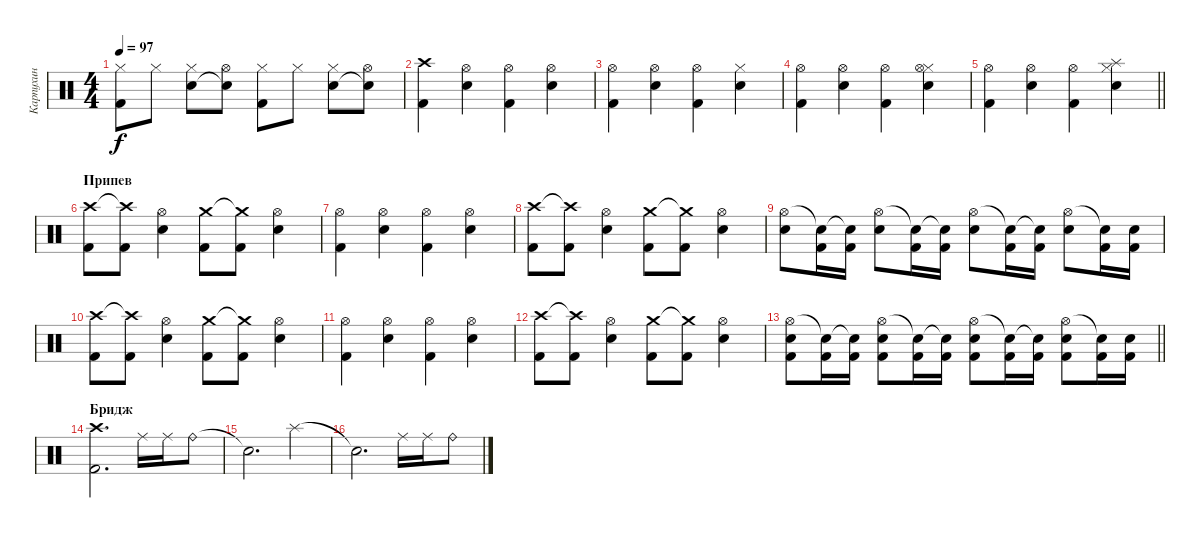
\track ("Карпухин" "Карпухин") {instrument percussion}
\staff {score}
\articulation defaults
\ts (4 4)
\tempo 97
\clef neutral
\ks c
("Hi-Hat (closed)" "Kick (hit) 2").8{dy f} "Hi-Hat (closed)".8 ("Hi-Hat (closed)" "Snare (hit) 2").8 ("Hi-Hat (open)" "Snare (hit) 2"{t}).8 ("Hi-Hat (closed)" "Kick (hit) 2").8 "Hi-Hat (closed)".8 ("Hi-Hat (closed)" "Snare (hit) 2").8 ("Hi-Hat (open)" "Snare (hit) 2"{t}).8 |
("Crash high (hit)" "Kick (hit) 2").4 ("Electric Snare (hit)" "Hi-Hat (open)").4 ("Kick (hit) 2" "Hi-Hat (open)").4 ("Electric Snare (hit)" "Hi-Hat (open)").4 |
("Kick (hit) 2" "Hi-Hat (open)").4 ("Electric Snare (hit)" "Hi-Hat (open)").4 ("Kick (hit) 2" "Hi-Hat (open)").4 ("Electric Snare (hit)" "Hi-Hat (closed)").4 |
("Kick (hit) 2" "Hi-Hat (open)").4 ("Electric Snare (hit)" "Hi-Hat (open)").4 ("Kick (hit) 2" "Hi-Hat (open)").4 ("Electric Snare (hit)" "Hi-Hat (closed)" "Hi-Hat (open)").4 |
\barLineRight lightlight
("Kick (hit) 2" "Hi-Hat (open)").4 ("Electric Snare (hit)" "Hi-Hat (open)").4 ("Kick (hit) 2" "Hi-Hat (open)").4 ("Electric Snare (hit)" "Hi-Hat (closed)" "Splash (hit)").4 |
\section ("" "Припев")
("Crash high (hit)" "Kick (hit) 2").8 ("Crash high (hit)"{t} "Kick (hit) 2").8 ("Hi-Hat (open)" "Electric Snare (hit)").4 ("Crash medium (hit)" "Kick (hit) 2").8 ("Crash medium (hit)"{t} "Kick (hit) 2").8 ("Hi-Hat (open)" "Electric Snare (hit)").4 |
("Kick (hit) 2" "Hi-Hat (open)").4 ("Electric Snare (hit)" "Hi-Hat (open)").4 ("Kick (hit) 2" "Hi-Hat (open)").4 ("Electric Snare (hit)" "Hi-Hat (open)").4 |
("Crash high (hit)" "Kick (hit) 2").8 ("Crash high (hit)"{t} "Kick (hit) 2").8 ("Hi-Hat (open)" "Electric Snare (hit)").4 ("Crash medium (hit)" "Kick (hit) 2").8 ("Crash medium (hit)"{t} "Kick (hit) 2").8 ("Hi-Hat (open)" "Electric Snare (hit)").4 |
("Electric Snare (hit)" "Hi-Hat (open)").8 ("Kick (hit) 2" "Snare (hit)"{t}).16 ("Kick (hit) 2" "Snare (hit)"{t}).16 ("Electric Snare (hit)" "Hi-Hat (open)").8 ("Kick (hit) 2" "Snare (hit)"{t}).16 ("Kick (hit) 2" "Snare (hit)"{t}).16 ("Electric Snare (hit)" "Hi-Hat (open)").8 ("Kick (hit) 2" "Snare (hit)"{t}).16 ("Kick (hit) 2" "Snare (hit)"{t}).16 ("Electric Snare (hit)" "Hi-Hat (open)").8 ("Kick (hit) 2" "Snare (hit) 2"{t}).16 ("Kick (hit) 2" "Snare (hit) 2").16 |
("Crash high (hit)" "Kick (hit) 2").8 ("Crash high (hit)"{t} "Kick (hit) 2").8 ("Hi-Hat (open)" "Electric Snare (hit)").4 ("Crash medium (hit)" "Kick (hit) 2").8 ("Crash medium (hit)"{t} "Kick (hit) 2").8 ("Hi-Hat (open)" "Electric Snare (hit)").4 |
("Kick (hit) 2" "Hi-Hat (open)").4 ("Electric Snare (hit)" "Hi-Hat (open)").4 ("Kick (hit) 2" "Hi-Hat (open)").4 ("Electric Snare (hit)" "Hi-Hat (open)").4 |
("Crash high (hit)" "Kick (hit) 2").8 ("Crash high (hit)"{t} "Kick (hit) 2").8 ("Hi-Hat (open)" "Electric Snare (hit)").4 ("Crash medium (hit)" "Kick (hit) 2").8 ("Crash medium (hit)"{t} "Kick (hit) 2").8 ("Hi-Hat (open)" "Electric Snare (hit)").4 |
\barLineRight lightlight
("Snare (hit) 2" "Hi-Hat (open)" "Kick (hit) 2").8 ("Kick (hit) 2" "Snare (hit)"{t}).16 ("Kick (hit) 2" "Snare (hit)"{t}).16 ("Snare (hit) 2" "Hi-Hat (open)" "Kick (hit) 2").8 ("Kick (hit) 2" "Snare (hit)"{t}).16 ("Kick (hit) 2" "Snare (hit)"{t}).16 ("Snare (hit) 2" "Hi-Hat (open)" "Kick (hit) 2").8 ("Kick (hit) 2" "Snare (hit)"{t}).16 ("Kick (hit) 2" "Snare (hit)"{t}).16 ("Snare (hit) 2" "Hi-Hat (open)" "Kick (hit) 2").8 ("Kick (hit) 2" "Snare (hit) 2"{t}).16 ("Kick (hit) 2" "Snare (hit) 2").16 |
\section ("" "Бридж")
("Crash high (hit)" "Kick (hit) 2").2{d} "Ride (middle)".16 "Ride (middle)".16 "Ride (bell)".8 |
"Snare (hit)"{t}.2{d} "Splash (hit)".4 |
"Snare (hit)"{t}.2{d} "Ride (middle)".16 "Ride (middle)".16 "Ride (bell)".8
